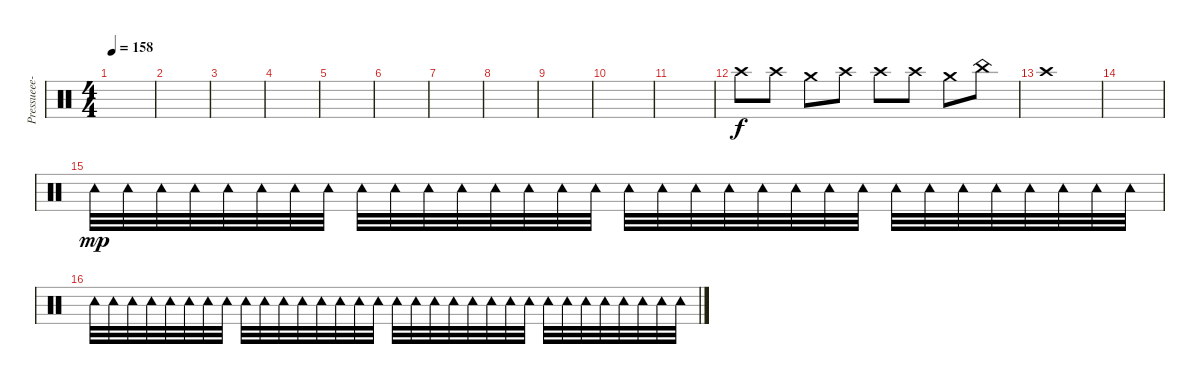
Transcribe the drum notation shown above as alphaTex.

\track ("" "Pressueee-") {instrument percussion}
\staff {score}
\articulation defaults
\ts (4 4)
\tempo 158
\clef neutral
\ks c
|
|
|
|
|
|
|
|
|
|
|
"Crash high (hit)".8 "Crash high (hit)".8 "Crash medium (hit)".8 "Crash high (hit)".8 "Crash high (hit)".8 "Crash high (hit)".8 "Crash medium (hit)".8 "China (hit)".8 |
"Crash high (hit)".1 |
|
"Tambourine (hit)".32{dy mp} "Tambourine (hit)".32 "Tambourine (hit)".32 "Tambourine (hit)".32 "Tambourine (hit)".32 "Tambourine (hit)".32 "Tambourine (hit)".32 "Tambourine (hit)".32 "Tambourine (hit)".32 "Tambourine (hit)".32 "Tambourine (hit)".32 "Tambourine (hit)".32 "Tambourine (hit)".32 "Tambourine (hit)".32 "Tambourine (hit)".32 "Tambourine (hit)".32 "Tambourine (hit)".32 "Tambourine (hit)".32 "Tambourine (hit)".32 "Tambourine (hit)".32 "Tambourine (hit)".32 "Tambourine (hit)".32 "Tambourine (hit)".32 "Tambourine (hit)".32 "Tambourine (hit)".32 "Tambourine (hit)".32 "Tambourine (hit)".32 "Tambourine (hit)".32 "Tambourine (hit)".32 "Tambourine (hit)".32 "Tambourine (hit)".32 "Tambourine (hit)".32 |
"Tambourine (hit)".32 "Tambourine (hit)".32 "Tambourine (hit)".32 "Tambourine (hit)".32 "Tambourine (hit)".32 "Tambourine (hit)".32 "Tambourine (hit)".32 "Tambourine (hit)".32 "Tambourine (hit)".32 "Tambourine (hit)".32 "Tambourine (hit)".32 "Tambourine (hit)".32 "Tambourine (hit)".32 "Tambourine (hit)".32 "Tambourine (hit)".32 "Tambourine (hit)".32 "Tambourine (hit)".32 "Tambourine (hit)".32 "Tambourine (hit)".32 "Tambourine (hit)".32 "Tambourine (hit)".32 "Tambourine (hit)".32 "Tambourine (hit)".32 "Tambourine (hit)".32 "Tambourine (hit)".32 "Tambourine (hit)".32 "Tambourine (hit)".32 "Tambourine (hit)".32 "Tambourine (hit)".32 "Tambourine (hit)".32 "Tambourine (hit)".32 "Tambourine (hit)".32
